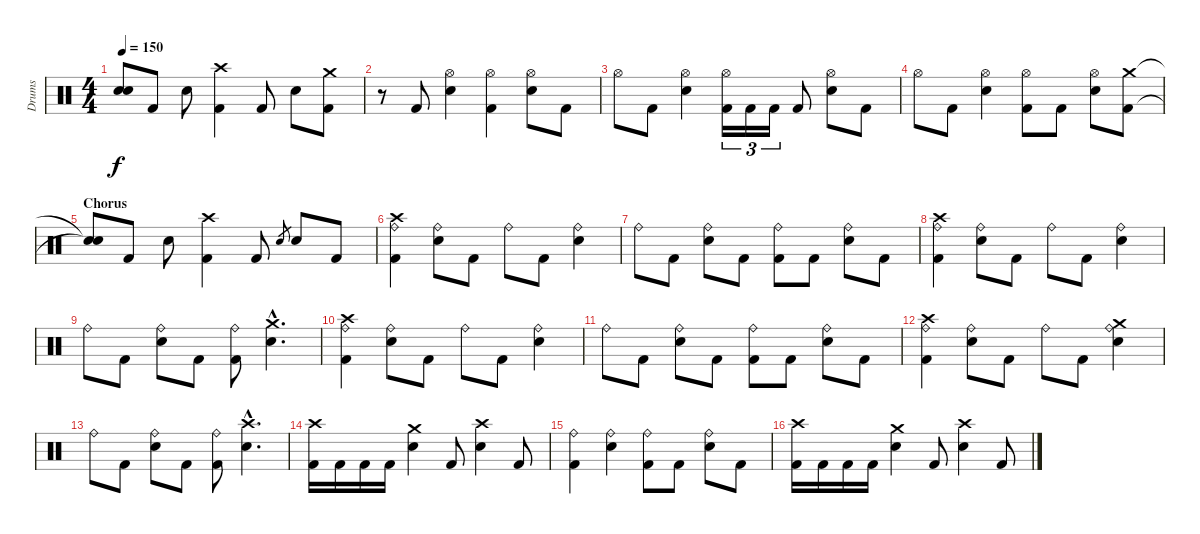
\track ("Drums" "Drums") {instrument percussion}
\staff {score}
\articulation defaults
\ts (4 4)
\tempo 150
\clef neutral
\ks c
("Snare (hit)"{t} "Snare (hit)"{t}).8{dy f} "Kick (hit) 2".8 "Electric Snare (hit)".8 ("Crash high (hit)" "Kick (hit) 2").4 "Kick (hit) 2".8 "Electric Snare (hit)".8 ("Crash medium (hit)" "Kick (hit) 2").8 |
r.8 "Kick (hit) 2".8 ("Hi-Hat (open)" "Electric Snare (hit)").4 ("Hi-Hat (open)" "Kick (hit) 2").4 ("Hi-Hat (open)" "Electric Snare (hit)").8 "Kick (hit) 2".8 |
"Hi-Hat (open)".8 "Kick (hit) 2".8 ("Hi-Hat (open)" "Electric Snare (hit)").4 ("Hi-Hat (open)" "Kick (hit) 2").16{tu (3 2)} "Kick (hit) 2".16{tu (3 2)} "Kick (hit) 2".16{tu (3 2)} "Kick (hit) 2".8 ("Hi-Hat (open)" "Electric Snare (hit)").8 "Kick (hit) 2".8 |
"Hi-Hat (open)".8 "Kick (hit) 2".8 ("Hi-Hat (open)" "Electric Snare (hit)").4 ("Hi-Hat (open)" "Kick (hit) 2").8 "Kick (hit) 2".8 ("Hi-Hat (open)" "Electric Snare (hit)").8 ("Crash medium (hit)" "Kick (hit) 2").8 |
\section ("" "Chorus")
("Snare (hit)"{t} "Snare (hit)"{t}).8 "Kick (hit) 2".8 "Electric Snare (hit)".8 ("Crash high (hit)" "Kick (hit) 2").4 "Kick (hit) 2".8 "Electric Snare (hit)".8{gr} "Electric Snare (hit)".8 "Kick (hit) 2".8 |
("Ride (bell)" "Kick (hit) 2" "Crash high (hit)").4 ("Ride (bell)" "Electric Snare (hit)").8 "Kick (hit) 2".8 "Ride (bell)".8 "Kick (hit) 2".8 ("Ride (bell)" "Electric Snare (hit)").4 |
"Ride (bell)".8 "Kick (hit) 2".8 ("Ride (bell)" "Electric Snare (hit)").8 "Kick (hit) 2".8 ("Ride (bell)" "Kick (hit) 2").8 "Kick (hit) 2".8 ("Ride (bell)" "Electric Snare (hit)").8 "Kick (hit) 2".8 |
("Ride (bell)" "Kick (hit) 2" "Crash high (hit)").4 ("Ride (bell)" "Electric Snare (hit)").8 "Kick (hit) 2".8 "Ride (bell)".8 "Kick (hit) 2".8 ("Ride (bell)" "Electric Snare (hit)").4 |
"Ride (bell)".8 "Kick (hit) 2".8 ("Ride (bell)" "Electric Snare (hit)").8 "Kick (hit) 2".8 ("Ride (bell)" "Kick (hit) 2").8 ("Electric Snare (hit)"{hac} "Crash medium (hit)"{hac}).4{d} |
("Ride (bell)" "Kick (hit) 2" "Crash high (hit)").4 ("Ride (bell)" "Electric Snare (hit)").8 "Kick (hit) 2".8 "Ride (bell)".8 "Kick (hit) 2".8 ("Ride (bell)" "Electric Snare (hit)").4 |
"Ride (bell)".8 "Kick (hit) 2".8 ("Ride (bell)" "Electric Snare (hit)").8 "Kick (hit) 2".8 ("Ride (bell)" "Kick (hit) 2").8 "Kick (hit) 2".8 ("Ride (bell)" "Electric Snare (hit)").8 "Kick (hit) 2".8 |
("Ride (bell)" "Kick (hit) 2" "Crash high (hit)").4 ("Ride (bell)" "Electric Snare (hit)").8 "Kick (hit) 2".8 "Ride (bell)".8 "Kick (hit) 2".8 ("Ride (bell)" "Electric Snare (hit)" "Crash medium (hit)").4 |
"Ride (bell)".8 "Kick (hit) 2".8 ("Ride (bell)" "Electric Snare (hit)").8 "Kick (hit) 2".8 ("Ride (bell)" "Kick (hit) 2").8 ("Electric Snare (hit)"{hac} "Crash high (hit)"{hac}).4{d} |
("Kick (hit) 2" "Crash high (hit)").16 "Kick (hit) 2".16 "Kick (hit) 2".16 "Kick (hit) 2".16 ("Electric Snare (hit)" "Crash medium (hit)").4 "Kick (hit) 2".8 ("Electric Snare (hit)" "Crash high (hit)").4 "Kick (hit) 2".8 |
("Kick (hit) 2" "Ride (bell)").4 ("Electric Snare (hit)" "Ride (bell)").4 ("Kick (hit) 2" "Ride (bell)").8 "Kick (hit) 2".8 ("Electric Snare (hit)" "Ride (bell)").8 "Kick (hit) 2".8 |
("Kick (hit) 2" "Crash high (hit)").16 "Kick (hit) 2".16 "Kick (hit) 2".16 "Kick (hit) 2".16 ("Electric Snare (hit)" "Crash medium (hit)").4 "Kick (hit) 2".8 ("Electric Snare (hit)" "Crash high (hit)").4 "Kick (hit) 2".8
